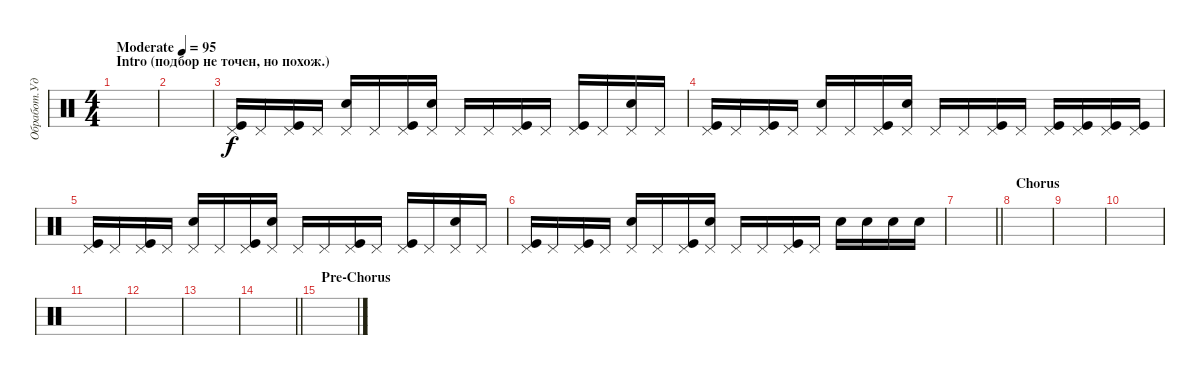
\track ("Обработ.Ударные" "Обработ.Уд") {instrument percussion}
\staff {score}
\articulation defaults
\ts (4 4)
\section ("" "Intro (подбор не точен, но похож.)")
\tempo (95 "Moderate")
\clef neutral
\ks c
|
|
("Pedal Hi-Hat (hit)" "Kick (hit)").16{volume 7} "Pedal Hi-Hat (hit)".16 ("Pedal Hi-Hat (hit)" "Kick (hit)").16 "Pedal Hi-Hat (hit)".16 ("Pedal Hi-Hat (hit)" "Electric Snare (hit)").16 "Pedal Hi-Hat (hit)".16 ("Pedal Hi-Hat (hit)" "Kick (hit)").16 ("Pedal Hi-Hat (hit)" "Electric Snare (hit)").16 "Pedal Hi-Hat (hit)".16 "Pedal Hi-Hat (hit)".16 ("Pedal Hi-Hat (hit)" "Kick (hit)").16 "Pedal Hi-Hat (hit)".16 ("Pedal Hi-Hat (hit)" "Kick (hit)").16 "Pedal Hi-Hat (hit)".16 ("Pedal Hi-Hat (hit)" "Electric Snare (hit)").16 "Pedal Hi-Hat (hit)".16 |
("Pedal Hi-Hat (hit)" "Kick (hit)").16 "Pedal Hi-Hat (hit)".16 ("Pedal Hi-Hat (hit)" "Kick (hit)").16 "Pedal Hi-Hat (hit)".16 ("Pedal Hi-Hat (hit)" "Electric Snare (hit)").16 "Pedal Hi-Hat (hit)".16 ("Pedal Hi-Hat (hit)" "Kick (hit)").16 ("Pedal Hi-Hat (hit)" "Electric Snare (hit)").16 "Pedal Hi-Hat (hit)".16 "Pedal Hi-Hat (hit)".16 ("Pedal Hi-Hat (hit)" "Kick (hit)").16 "Pedal Hi-Hat (hit)".16 ("Pedal Hi-Hat (hit)" "Kick (hit)").16 ("Pedal Hi-Hat (hit)" "Kick (hit)").16 ("Pedal Hi-Hat (hit)" "Kick (hit)").16 ("Pedal Hi-Hat (hit)" "Kick (hit)").16 |
("Pedal Hi-Hat (hit)" "Kick (hit)").16 "Pedal Hi-Hat (hit)".16 ("Pedal Hi-Hat (hit)" "Kick (hit)").16 "Pedal Hi-Hat (hit)".16 ("Pedal Hi-Hat (hit)" "Electric Snare (hit)").16 "Pedal Hi-Hat (hit)".16 ("Pedal Hi-Hat (hit)" "Kick (hit)").16 ("Pedal Hi-Hat (hit)" "Electric Snare (hit)").16 "Pedal Hi-Hat (hit)".16 "Pedal Hi-Hat (hit)".16 ("Pedal Hi-Hat (hit)" "Kick (hit)").16 "Pedal Hi-Hat (hit)".16 ("Pedal Hi-Hat (hit)" "Kick (hit)").16 "Pedal Hi-Hat (hit)".16 ("Pedal Hi-Hat (hit)" "Electric Snare (hit)").16 "Pedal Hi-Hat (hit)".16 |
("Pedal Hi-Hat (hit)" "Kick (hit)").16 "Pedal Hi-Hat (hit)".16 ("Pedal Hi-Hat (hit)" "Kick (hit)").16 "Pedal Hi-Hat (hit)".16 ("Pedal Hi-Hat (hit)" "Electric Snare (hit)").16 "Pedal Hi-Hat (hit)".16 ("Pedal Hi-Hat (hit)" "Kick (hit)").16 ("Pedal Hi-Hat (hit)" "Electric Snare (hit)").16 "Pedal Hi-Hat (hit)".16 "Pedal Hi-Hat (hit)".16 ("Pedal Hi-Hat (hit)" "Kick (hit)").16 "Pedal Hi-Hat (hit)".16 "Snare (hit) 2".16{volume 13} "Snare (hit) 2".16 "Snare (hit) 2".16 "Snare (hit) 2".16 |
\barLineRight lightlight
|
\section ("" "Chorus")
|
|
|
|
|
|
\barLineRight lightlight
|
\section ("" "Pre-Chorus")
